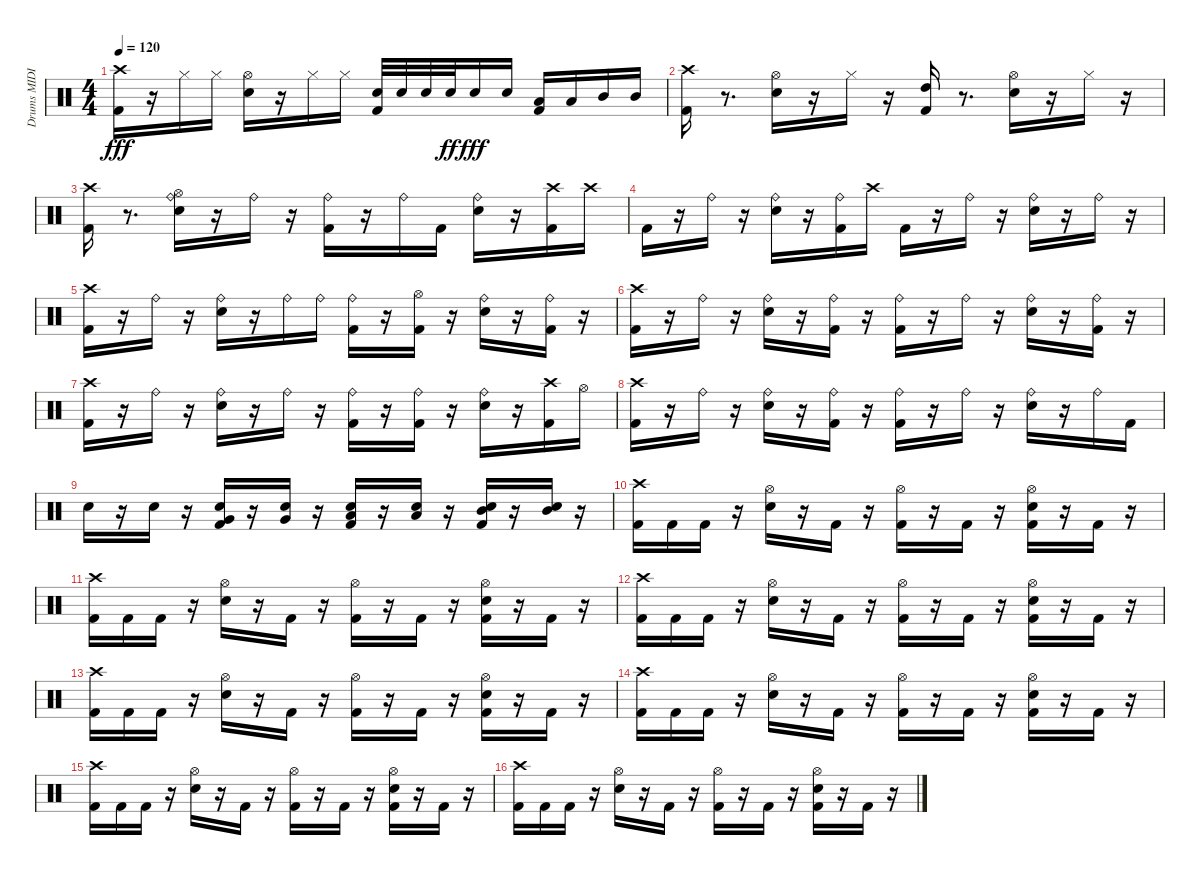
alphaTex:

\track ("Drums MIDI" "Drums MIDI") {instrument percussion}
\staff {score}
\articulation defaults
\ts (4 4)
\tempo 120
\clef neutral
\ks c
("Kick (hit) 2" "Crash high (hit)").16{dy fff} r.16 "Hi-Hat (closed)".16 "Hi-Hat (closed)".16 ("Snare (hit) 2" "Hi-Hat (open)").16 r.16 "Hi-Hat (closed)".16 "Hi-Hat (closed)".16 ("Kick (hit) 2" "Snare (hit) 2").32 "Snare (hit) 2".32 "Snare (hit) 2".32 "Snare (hit) 2".32{dy ff} "Snare (hit) 2".16{dy fff} "Snare (hit) 2".16 ("Kick (hit) 2" "Low Tom (hit)").16 "Low Tom (hit)".16 "Mid Tom (hit)".16 "Mid Tom (hit)".16 |
("Kick (hit) 2" "Crash high (hit)").16 r.8{d} ("Snare (hit) 2" "Hi-Hat (open)").16 r.16 "Hi-Hat (closed)".16 r.16 ("Kick (hit) 2" "High Tom (hit)").16 r.8{d} ("Snare (hit) 2" "Hi-Hat (open)").16 r.16 "Hi-Hat (closed)".16 r.16 |
("Kick (hit) 2" "Crash high (hit)").16 r.8{d} ("Snare (hit) 2" "Hi-Hat (open)" "Ride (bell)").16 r.16 "Ride (bell)".16 r.16 ("Kick (hit) 2" "Ride (bell)").16 r.16 "Ride (bell)".16 "Kick (hit) 2".16 ("Snare (hit) 2" "Ride (bell)").16 r.16 ("Kick (hit) 2" "Crash high (hit)").16 "Crash high (hit)".16 |
"Kick (hit) 2".16 r.16 "Ride (bell)".16 r.16 ("Snare (hit) 2" "Ride (bell)").16 r.16 ("Kick (hit) 2" "Ride (bell)").16 "Crash high (hit)".16 "Kick (hit) 2".16 r.16 "Ride (bell)".16 r.16 ("Snare (hit) 2" "Ride (bell)").16 r.16 "Ride (bell)".16 r.16 |
("Kick (hit) 2" "Crash high (hit)").16 r.16 "Ride (bell)".16 r.16 ("Snare (hit) 2" "Ride (bell)").16 r.16 "Ride (bell)".16 "Ride (bell)".16 ("Kick (hit) 2" "Ride (bell)").16 r.16 ("Kick (hit) 2" "Hi-Hat (open)").16 r.16 ("Snare (hit) 2" "Ride (bell)").16 r.16 ("Kick (hit) 2" "Ride (bell)").16 r.16 |
("Kick (hit) 2" "Crash high (hit)").16 r.16 "Ride (bell)".16 r.16 ("Snare (hit) 2" "Ride (bell)").16 r.16 ("Kick (hit) 2" "Ride (bell)").16 r.16 ("Kick (hit) 2" "Ride (bell)").16 r.16 "Ride (bell)".16 r.16 ("Snare (hit) 2" "Ride (bell)").16 r.16 ("Kick (hit) 2" "Ride (bell)").16 r.16 |
("Kick (hit) 2" "Crash high (hit)").16 r.16 "Ride (bell)".16 r.16 ("Snare (hit) 2" "Ride (bell)").16 r.16 "Ride (bell)".16 r.16 ("Kick (hit) 2" "Ride (bell)").16 r.16 ("Kick (hit) 2" "Ride (bell)").16 r.16 ("Snare (hit) 2" "Ride (bell)").16 r.16 ("Kick (hit) 2" "Crash high (hit)").16 "Hi-Hat (open)".16 |
("Kick (hit) 2" "Crash high (hit)").16 r.16 "Ride (bell)".16 r.16 ("Snare (hit) 2" "Ride (bell)").16 r.16 ("Kick (hit) 2" "Ride (bell)").16 r.16 ("Kick (hit) 2" "Ride (bell)").16 r.16 "Ride (bell)".16 r.16 ("Snare (hit) 2" "Ride (bell)").16 r.16 "Ride (bell)".16 "Kick (hit) 2".16 |
"Snare (hit) 2".16 r.16 "Snare (hit) 2".16 r.16 ("Kick (hit) 2" "Snare (hit) 2" "Very Low Tom (hit)").16 r.16 ("Snare (hit) 2" "Very Low Tom (hit)").16 r.16 ("Kick (hit) 2" "Snare (hit) 2" "Low Tom (hit)").16 r.16 ("Snare (hit) 2" "Low Tom (hit)").16 r.16 ("Kick (hit) 2" "Snare (hit) 2" "Mid Tom (hit)").16 r.16 ("Snare (hit) 2" "Mid Tom (hit)").16 r.16 |
("Kick (hit) 2" "Crash high (hit)").16 "Kick (hit) 2".16 "Kick (hit) 2".16 r.16 ("Snare (hit) 2" "Hi-Hat (open)").16 r.16 "Kick (hit) 2".16 r.16 ("Kick (hit) 2" "Hi-Hat (open)").16 r.16 "Kick (hit) 2".16 r.16 ("Kick (hit) 2" "Snare (hit) 2" "Hi-Hat (open)").16 r.16 "Kick (hit) 2".16 r.16 |
("Kick (hit) 2" "Crash high (hit)").16 "Kick (hit) 2".16 "Kick (hit) 2".16 r.16 ("Snare (hit) 2" "Hi-Hat (open)").16 r.16 "Kick (hit) 2".16 r.16 ("Kick (hit) 2" "Hi-Hat (open)").16 r.16 "Kick (hit) 2".16 r.16 ("Kick (hit) 2" "Snare (hit) 2" "Hi-Hat (open)").16 r.16 "Kick (hit) 2".16 r.16 |
("Kick (hit) 2" "Crash high (hit)").16 "Kick (hit) 2".16 "Kick (hit) 2".16 r.16 ("Snare (hit) 2" "Hi-Hat (open)").16 r.16 "Kick (hit) 2".16 r.16 ("Kick (hit) 2" "Hi-Hat (open)").16 r.16 "Kick (hit) 2".16 r.16 ("Kick (hit) 2" "Snare (hit) 2" "Hi-Hat (open)").16 r.16 "Kick (hit) 2".16 r.16 |
("Kick (hit) 2" "Crash high (hit)").16 "Kick (hit) 2".16 "Kick (hit) 2".16 r.16 ("Snare (hit) 2" "Hi-Hat (open)").16 r.16 "Kick (hit) 2".16 r.16 ("Kick (hit) 2" "Hi-Hat (open)").16 r.16 "Kick (hit) 2".16 r.16 ("Kick (hit) 2" "Snare (hit) 2" "Hi-Hat (open)").16 r.16 "Kick (hit) 2".16 r.16 |
("Kick (hit) 2" "Crash high (hit)").16 "Kick (hit) 2".16 "Kick (hit) 2".16 r.16 ("Snare (hit) 2" "Hi-Hat (open)").16 r.16 "Kick (hit) 2".16 r.16 ("Kick (hit) 2" "Hi-Hat (open)").16 r.16 "Kick (hit) 2".16 r.16 ("Kick (hit) 2" "Snare (hit) 2" "Hi-Hat (open)").16 r.16 "Kick (hit) 2".16 r.16 |
("Kick (hit) 2" "Crash high (hit)").16 "Kick (hit) 2".16 "Kick (hit) 2".16 r.16 ("Snare (hit) 2" "Hi-Hat (open)").16 r.16 "Kick (hit) 2".16 r.16 ("Kick (hit) 2" "Hi-Hat (open)").16 r.16 "Kick (hit) 2".16 r.16 ("Kick (hit) 2" "Snare (hit) 2" "Hi-Hat (open)").16 r.16 "Kick (hit) 2".16 r.16 |
("Kick (hit) 2" "Crash high (hit)").16 "Kick (hit) 2".16 "Kick (hit) 2".16 r.16 ("Snare (hit) 2" "Hi-Hat (open)").16 r.16 "Kick (hit) 2".16 r.16 ("Kick (hit) 2" "Hi-Hat (open)").16 r.16 "Kick (hit) 2".16 r.16 ("Kick (hit) 2" "Snare (hit) 2" "Hi-Hat (open)").16 r.16 "Kick (hit) 2".16 r.16
